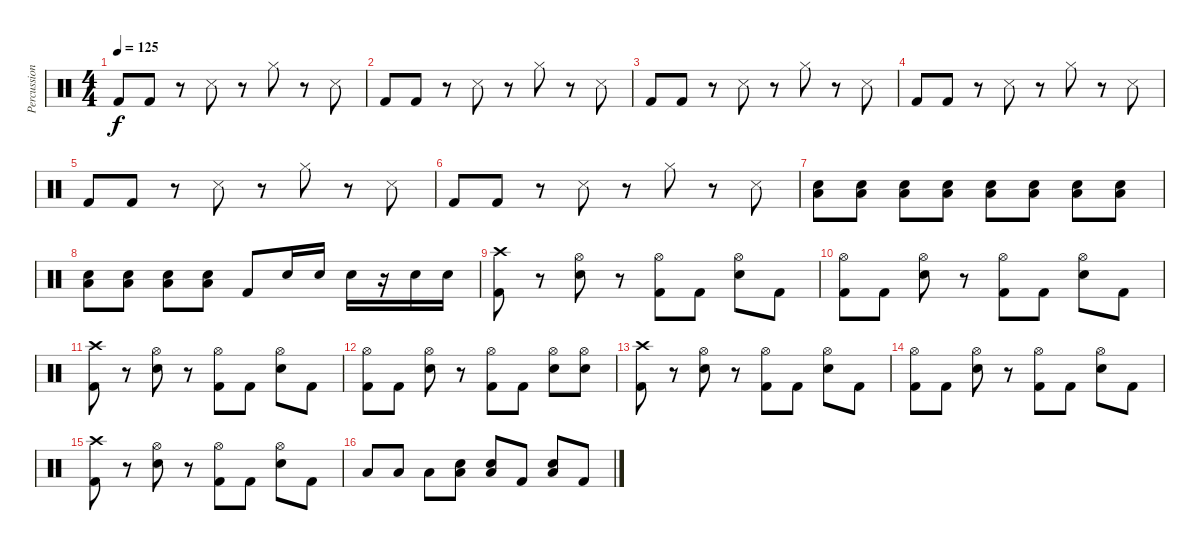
\track ("Percussion" "Percussion") {instrument percussion}
\staff {score}
\articulation defaults
\ts (4 4)
\tempo 125
\clef neutral
\ks c "Kick (hit) 2".8{dy f} "Kick (hit) 2".8
r.8 "Snare (side stick) 3".8 r.8 "Hi-Hat (closed)".8 r.8 "Snare (side stick) 3".8 |
"Kick (hit) 2".8 "Kick (hit) 2".8 r.8 "Snare (side stick) 3".8 r.8 "Hi-Hat (closed)".8 r.8 "Snare (side stick) 3".8 |
"Kick (hit) 2".8 "Kick (hit) 2".8 r.8 "Snare (side stick) 3".8 r.8 "Hi-Hat (closed)".8 r.8 "Snare (side stick) 3".8 |
"Kick (hit) 2".8 "Kick (hit) 2".8 r.8 "Snare (side stick) 3".8 r.8 "Hi-Hat (closed)".8 r.8 "Snare (side stick) 3".8 |
"Kick (hit) 2".8 "Kick (hit) 2".8 r.8 "Snare (side stick) 3".8 r.8 "Hi-Hat (closed)".8 r.8 "Snare (side stick) 3".8 |
"Kick (hit) 2".8 "Kick (hit) 2".8 r.8 "Snare (side stick) 3".8 r.8 "Hi-Hat (closed)".8 r.8 "Snare (side stick) 3".8 |
("Low Floor Tom (hit)" "Snare (hit) 2").8 ("Low Floor Tom (hit)" "Snare (hit) 2").8 ("Low Floor Tom (hit)" "Snare (hit) 2").8 ("Low Floor Tom (hit)" "Snare (hit) 2").8 ("Low Floor Tom (hit)" "Snare (hit) 2").8 ("Low Floor Tom (hit)" "Snare (hit) 2").8 ("Low Floor Tom (hit)" "Snare (hit) 2").8 ("Low Floor Tom (hit)" "Snare (hit) 2").8 |
("Low Floor Tom (hit)" "Snare (hit) 2").8 ("Low Floor Tom (hit)" "Snare (hit) 2").8 ("Low Floor Tom (hit)" "Snare (hit) 2").8 ("Low Floor Tom (hit)" "Snare (hit) 2").8 "Kick (hit) 2".8 "Snare (hit) 2".16 "Snare (hit) 2".16 "Snare (hit) 2".16 r.16 "Snare (hit) 2".16 "Snare (hit) 2".16 |
("Crash high (hit)" "Kick (hit) 2").8 r.8 ("Hi-Hat (open)" "Snare (hit) 2").8 r.8 ("Hi-Hat (open)" "Kick (hit) 2").8 "Kick (hit) 2".8 ("Hi-Hat (open)" "Snare (hit) 2").8 "Kick (hit) 2".8 |
("Hi-Hat (open)" "Kick (hit) 2").8 "Kick (hit) 2".8 ("Hi-Hat (open)" "Snare (hit) 2").8 r.8 ("Hi-Hat (open)" "Kick (hit) 2").8 "Kick (hit) 2".8 ("Hi-Hat (open)" "Snare (hit) 2").8 "Kick (hit) 2".8 |
("Crash high (hit)" "Kick (hit) 2").8 r.8 ("Hi-Hat (open)" "Snare (hit) 2").8 r.8 ("Hi-Hat (open)" "Kick (hit) 2").8 "Kick (hit) 2".8 ("Hi-Hat (open)" "Snare (hit) 2").8 "Kick (hit) 2".8 |
("Hi-Hat (open)" "Kick (hit) 2").8 "Kick (hit) 2".8 ("Hi-Hat (open)" "Snare (hit) 2").8 r.8 ("Hi-Hat (open)" "Kick (hit) 2").8 "Kick (hit) 2".8 ("Hi-Hat (open)" "Snare (hit) 2").8 ("Hi-Hat (open)" "Snare (hit) 2").8 |
("Crash high (hit)" "Kick (hit) 2").8 r.8 ("Hi-Hat (open)" "Snare (hit) 2").8 r.8 ("Hi-Hat (open)" "Kick (hit) 2").8 "Kick (hit) 2".8 ("Hi-Hat (open)" "Snare (hit) 2").8 "Kick (hit) 2".8 |
("Hi-Hat (open)" "Kick (hit) 2").8 "Kick (hit) 2".8 ("Hi-Hat (open)" "Snare (hit) 2").8 r.8 ("Hi-Hat (open)" "Kick (hit) 2").8 "Kick (hit) 2".8 ("Hi-Hat (open)" "Snare (hit) 2").8 "Kick (hit) 2".8 |
("Crash high (hit)" "Kick (hit) 2").8 r.8 ("Hi-Hat (open)" "Snare (hit) 2").8 r.8 ("Hi-Hat (open)" "Kick (hit) 2").8 "Kick (hit) 2".8 ("Hi-Hat (open)" "Snare (hit) 2").8 "Kick (hit) 2".8 |
"Low Floor Tom (hit)".8 "Low Floor Tom (hit)".8 "Low Floor Tom (hit)".8 ("Low Floor Tom (hit)" "Snare (hit) 2").8 ("Low Floor Tom (hit)" "Snare (hit) 2").8 "Kick (hit) 2".8 ("Low Floor Tom (hit)" "Snare (hit) 2").8 "Kick (hit) 2".8
